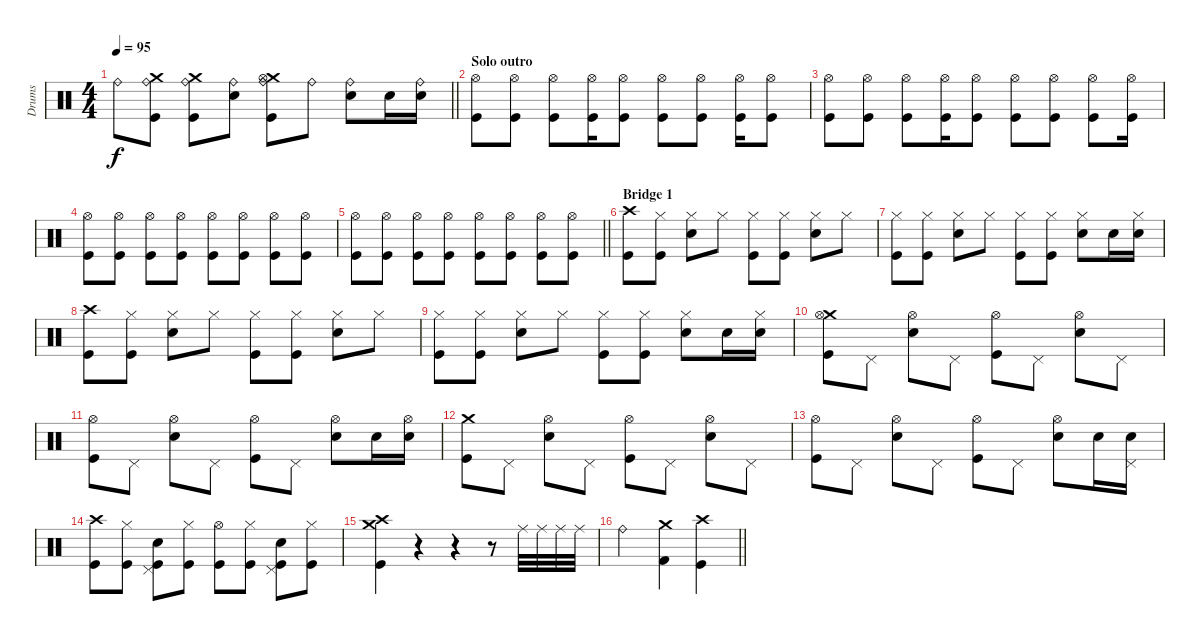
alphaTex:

\track ("Drums" "Drums") {instrument percussion}
\staff {score}
\articulation defaults
\ts (4 4)
\tempo 95
\clef neutral
\barLineRight lightlight
\ks c "Ride (bell)".8{dy f}
("Crash medium (hit)" "Ride (bell)" "Kick (hit)").8 ("Crash medium (hit)" "Ride (bell)" "Kick (hit)").8 ("Ride (bell)" "Snare (hit) 2").8 ("Crash medium (hit)" "Hi-Hat (open)" "Ride (bell)" "Kick (hit)").8 "Ride (bell)".8 ("Ride (bell)" "Snare (hit) 2").8 "Snare (hit) 2".16 ("Ride (bell)" "Snare (hit) 2").16 |
\section ("" "Solo outro")
("Hi-Hat (open)" "Kick (hit)").8 ("Hi-Hat (open)" "Kick (hit)").8 ("Hi-Hat (open)" "Kick (hit)").8 ("Hi-Hat (open)" "Kick (hit)").16 ("Hi-Hat (open)" "Kick (hit)").8 ("Hi-Hat (open)" "Kick (hit)").8 ("Hi-Hat (open)" "Kick (hit)").8 ("Hi-Hat (open)" "Kick (hit)").16 ("Hi-Hat (open)" "Kick (hit)").8 |
("Hi-Hat (open)" "Kick (hit)").8 ("Hi-Hat (open)" "Kick (hit)").8 ("Hi-Hat (open)" "Kick (hit)").8 ("Hi-Hat (open)" "Kick (hit)").16 ("Hi-Hat (open)" "Kick (hit)").8 ("Hi-Hat (open)" "Kick (hit)").8 ("Hi-Hat (open)" "Kick (hit)").8 ("Hi-Hat (open)" "Kick (hit)").8 ("Hi-Hat (open)" "Kick (hit)").16 |
("Hi-Hat (open)" "Kick (hit)").8 ("Hi-Hat (open)" "Kick (hit)").8 ("Hi-Hat (open)" "Kick (hit)").8 ("Hi-Hat (open)" "Kick (hit)").8 ("Hi-Hat (open)" "Kick (hit)").8 ("Hi-Hat (open)" "Kick (hit)").8 ("Hi-Hat (open)" "Kick (hit)").8 ("Hi-Hat (open)" "Kick (hit)").8 |
\barLineRight lightlight
("Hi-Hat (open)" "Kick (hit)").8 ("Hi-Hat (open)" "Kick (hit)").8 ("Hi-Hat (open)" "Kick (hit)").8 ("Hi-Hat (open)" "Kick (hit)").8 ("Hi-Hat (open)" "Kick (hit)").8 ("Hi-Hat (open)" "Kick (hit)").8 ("Hi-Hat (open)" "Kick (hit)").8 ("Hi-Hat (open)" "Kick (hit)").8 |
\section ("" "Bridge 1")
("Crash high (hit)" "Kick (hit)").8 ("Hi-Hat (closed)" "Kick (hit)").8 ("Hi-Hat (closed)" "Snare (hit) 2").8 "Hi-Hat (closed)".8 ("Hi-Hat (closed)" "Kick (hit)").8 ("Hi-Hat (closed)" "Kick (hit)").8 ("Hi-Hat (closed)" "Snare (hit) 2").8 "Hi-Hat (closed)".8 |
("Hi-Hat (closed)" "Kick (hit)").8 ("Hi-Hat (closed)" "Kick (hit)").8 ("Hi-Hat (closed)" "Snare (hit) 2").8 "Hi-Hat (closed)".8 ("Hi-Hat (closed)" "Kick (hit)").8 ("Hi-Hat (closed)" "Kick (hit)").8 ("Hi-Hat (closed)" "Snare (hit) 2").8 "Snare (hit) 2".16 ("Hi-Hat (closed)" "Snare (hit) 2").16 |
("Crash high (hit)" "Kick (hit)").8 ("Hi-Hat (closed)" "Kick (hit)").8 ("Hi-Hat (closed)" "Snare (hit) 2").8 "Hi-Hat (closed)".8 ("Hi-Hat (closed)" "Kick (hit)").8 ("Hi-Hat (closed)" "Kick (hit)").8 ("Hi-Hat (closed)" "Snare (hit) 2").8 "Hi-Hat (closed)".8 |
("Hi-Hat (closed)" "Kick (hit)").8 ("Hi-Hat (closed)" "Kick (hit)").8 ("Hi-Hat (closed)" "Snare (hit) 2").8 "Hi-Hat (closed)".8 ("Hi-Hat (closed)" "Kick (hit)").8 ("Hi-Hat (closed)" "Kick (hit)").8 ("Hi-Hat (closed)" "Snare (hit) 2").8 "Snare (hit) 2".16 ("Hi-Hat (closed)" "Snare (hit) 2").16 |
("Crash medium (hit)" "Hi-Hat (open)" "Kick (hit)").8 "Pedal Hi-Hat (hit)".8 ("Hi-Hat (open)" "Snare (hit) 2").8 "Pedal Hi-Hat (hit)".8 ("Hi-Hat (open)" "Kick (hit)").8 "Pedal Hi-Hat (hit)".8 ("Hi-Hat (open)" "Snare (hit) 2").8 "Pedal Hi-Hat (hit)".8 |
("Hi-Hat (open)" "Kick (hit)").8 "Pedal Hi-Hat (hit)".8 ("Hi-Hat (open)" "Snare (hit) 2").8 "Pedal Hi-Hat (hit)".8 ("Hi-Hat (open)" "Kick (hit)").8 "Pedal Hi-Hat (hit)".8 ("Hi-Hat (open)" "Snare (hit) 2").8 "Snare (hit) 2".16 ("Hi-Hat (open)" "Snare (hit) 2").16 |
("Crash medium (hit)" "Kick (hit)").8 "Pedal Hi-Hat (hit)".8 ("Hi-Hat (open)" "Snare (hit) 2").8 "Pedal Hi-Hat (hit)".8 ("Hi-Hat (open)" "Kick (hit)").8 "Pedal Hi-Hat (hit)".8 ("Hi-Hat (open)" "Snare (hit) 2").8 "Pedal Hi-Hat (hit)".8 |
("Hi-Hat (open)" "Kick (hit)").8 "Pedal Hi-Hat (hit)".8 ("Hi-Hat (open)" "Snare (hit) 2").8 "Pedal Hi-Hat (hit)".8 ("Hi-Hat (open)" "Kick (hit)").8 "Pedal Hi-Hat (hit)".8 ("Hi-Hat (open)" "Snare (hit) 2").8 "Snare (hit) 2".16 ("Pedal Hi-Hat (hit)" "Snare (hit) 2").16 |
("Crash high (hit)" "Kick (hit)").8 ("Hi-Hat (closed)" "Kick (hit)").8 ("Pedal Hi-Hat (hit)" "Snare (hit) 2" "Kick (hit)").8 ("Hi-Hat (closed)" "Kick (hit)").8 ("Hi-Hat (open)" "Kick (hit)").8 ("Hi-Hat (closed)" "Kick (hit)").8 ("Pedal Hi-Hat (hit)" "Snare (hit) 2" "Kick (hit)").8 ("Hi-Hat (closed)" "Kick (hit)").8 |
("Crash medium (hit)" "Crash high (hit)" "Kick (hit)").4 r.4 r.4 r.8 "Ride (middle)".32 "Ride (middle)".32 "Ride (middle)".32 "Ride (middle)".32 |
\barLineRight lightlight "Ride (bell)".2
("Crash medium (hit)" "Kick (hit) 2").4 ("Crash high (hit)" "Kick (hit)").4
